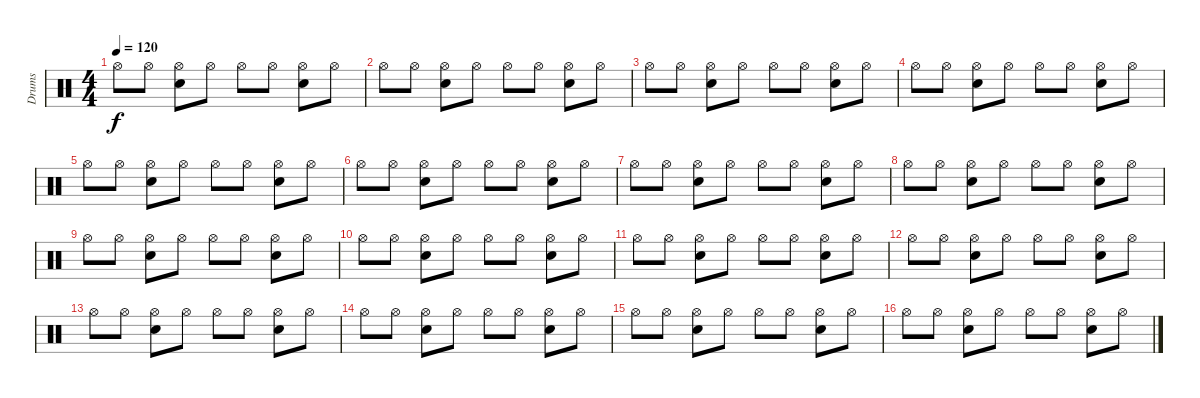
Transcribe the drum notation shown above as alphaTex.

\track ("Drums" "Drums") {instrument percussion}
\staff {score}
\articulation defaults
\ts (4 4)
\tempo 120
\clef neutral
\ks c "Hi-Hat (open)".8{dy f} "Hi-Hat (open)".8
("Hi-Hat (open)" "Snare (hit) 2").8 "Hi-Hat (open)".8 "Hi-Hat (open)".8 "Hi-Hat (open)".8 ("Hi-Hat (open)" "Snare (hit) 2").8 "Hi-Hat (open)".8 |
"Hi-Hat (open)".8 "Hi-Hat (open)".8 ("Hi-Hat (open)" "Snare (hit) 2").8 "Hi-Hat (open)".8 "Hi-Hat (open)".8 "Hi-Hat (open)".8 ("Hi-Hat (open)" "Snare (hit) 2").8 "Hi-Hat (open)".8 |
"Hi-Hat (open)".8 "Hi-Hat (open)".8 ("Hi-Hat (open)" "Snare (hit) 2").8 "Hi-Hat (open)".8 "Hi-Hat (open)".8 "Hi-Hat (open)".8 ("Hi-Hat (open)" "Snare (hit) 2").8 "Hi-Hat (open)".8 |
"Hi-Hat (open)".8 "Hi-Hat (open)".8 ("Hi-Hat (open)" "Snare (hit) 2").8 "Hi-Hat (open)".8 "Hi-Hat (open)".8 "Hi-Hat (open)".8 ("Hi-Hat (open)" "Snare (hit) 2").8 "Hi-Hat (open)".8 |
"Hi-Hat (open)".8 "Hi-Hat (open)".8 ("Hi-Hat (open)" "Snare (hit) 2").8 "Hi-Hat (open)".8 "Hi-Hat (open)".8 "Hi-Hat (open)".8 ("Hi-Hat (open)" "Snare (hit) 2").8 "Hi-Hat (open)".8 |
"Hi-Hat (open)".8 "Hi-Hat (open)".8 ("Hi-Hat (open)" "Snare (hit) 2").8 "Hi-Hat (open)".8 "Hi-Hat (open)".8 "Hi-Hat (open)".8 ("Hi-Hat (open)" "Snare (hit) 2").8 "Hi-Hat (open)".8 |
"Hi-Hat (open)".8 "Hi-Hat (open)".8 ("Hi-Hat (open)" "Snare (hit) 2").8 "Hi-Hat (open)".8 "Hi-Hat (open)".8 "Hi-Hat (open)".8 ("Hi-Hat (open)" "Snare (hit) 2").8 "Hi-Hat (open)".8 |
"Hi-Hat (open)".8 "Hi-Hat (open)".8 ("Hi-Hat (open)" "Snare (hit) 2").8 "Hi-Hat (open)".8 "Hi-Hat (open)".8 "Hi-Hat (open)".8 ("Hi-Hat (open)" "Snare (hit) 2").8 "Hi-Hat (open)".8 |
"Hi-Hat (open)".8 "Hi-Hat (open)".8 ("Hi-Hat (open)" "Snare (hit) 2").8 "Hi-Hat (open)".8 "Hi-Hat (open)".8 "Hi-Hat (open)".8 ("Hi-Hat (open)" "Snare (hit) 2").8 "Hi-Hat (open)".8 |
"Hi-Hat (open)".8 "Hi-Hat (open)".8 ("Hi-Hat (open)" "Snare (hit) 2").8 "Hi-Hat (open)".8 "Hi-Hat (open)".8 "Hi-Hat (open)".8 ("Hi-Hat (open)" "Snare (hit) 2").8 "Hi-Hat (open)".8 |
"Hi-Hat (open)".8 "Hi-Hat (open)".8 ("Hi-Hat (open)" "Snare (hit) 2").8 "Hi-Hat (open)".8 "Hi-Hat (open)".8 "Hi-Hat (open)".8 ("Hi-Hat (open)" "Snare (hit) 2").8 "Hi-Hat (open)".8 |
"Hi-Hat (open)".8 "Hi-Hat (open)".8 ("Hi-Hat (open)" "Snare (hit) 2").8 "Hi-Hat (open)".8 "Hi-Hat (open)".8 "Hi-Hat (open)".8 ("Hi-Hat (open)" "Snare (hit) 2").8 "Hi-Hat (open)".8 |
"Hi-Hat (open)".8 "Hi-Hat (open)".8 ("Hi-Hat (open)" "Snare (hit) 2").8 "Hi-Hat (open)".8 "Hi-Hat (open)".8 "Hi-Hat (open)".8 ("Hi-Hat (open)" "Snare (hit) 2").8 "Hi-Hat (open)".8 |
"Hi-Hat (open)".8 "Hi-Hat (open)".8 ("Hi-Hat (open)" "Snare (hit) 2").8 "Hi-Hat (open)".8 "Hi-Hat (open)".8 "Hi-Hat (open)".8 ("Hi-Hat (open)" "Snare (hit) 2").8 "Hi-Hat (open)".8 |
"Hi-Hat (open)".8 "Hi-Hat (open)".8 ("Hi-Hat (open)" "Snare (hit) 2").8 "Hi-Hat (open)".8 "Hi-Hat (open)".8 "Hi-Hat (open)".8 ("Hi-Hat (open)" "Snare (hit) 2").8 "Hi-Hat (open)".8 |
"Hi-Hat (open)".8 "Hi-Hat (open)".8 ("Hi-Hat (open)" "Snare (hit) 2").8 "Hi-Hat (open)".8 "Hi-Hat (open)".8 "Hi-Hat (open)".8 ("Hi-Hat (open)" "Snare (hit) 2").8 "Hi-Hat (open)".8
